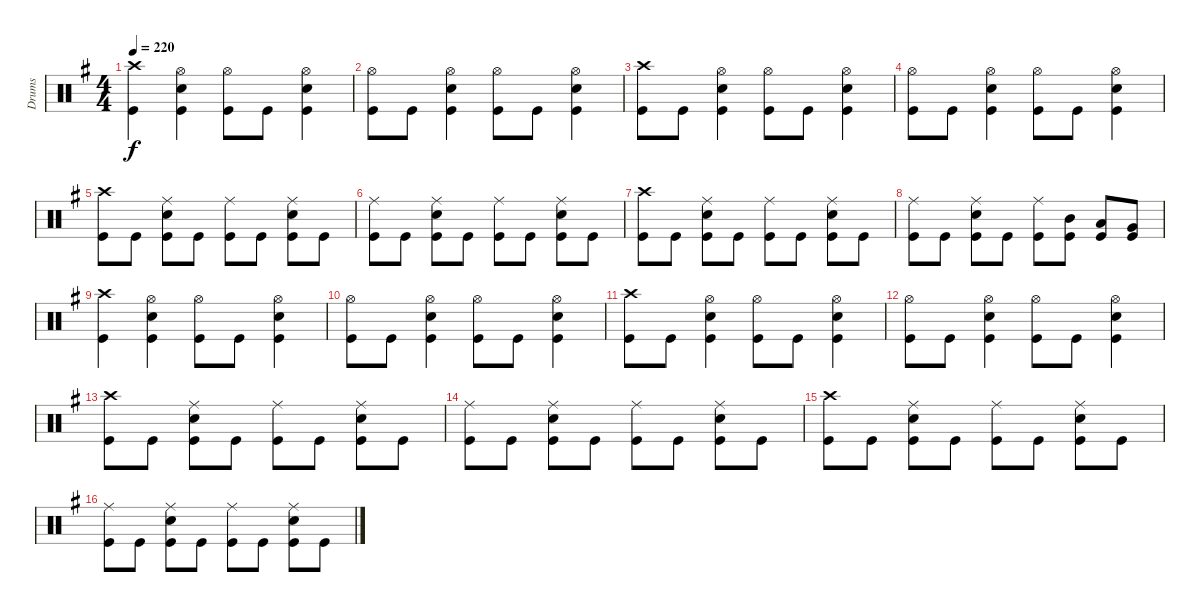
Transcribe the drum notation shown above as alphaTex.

\track ("Drums" "Drums") {instrument percussion}
\staff {score}
\articulation defaults
\ts (4 4)
\tempo 220
\clef neutral
\ks eminor
("Kick (hit)" "Crash high (hit)").4{dy f} ("Snare (hit) 2" "Kick (hit)" "Hi-Hat (open)").4 ("Kick (hit)" "Hi-Hat (open)").8 "Kick (hit)".8 ("Kick (hit)" "Snare (hit) 2" "Hi-Hat (open)").4 |
("Kick (hit)" "Hi-Hat (open)").8 "Kick (hit)".8 ("Kick (hit)" "Snare (hit) 2" "Hi-Hat (open)").4 ("Kick (hit)" "Hi-Hat (open)").8 "Kick (hit)".8 ("Kick (hit)" "Snare (hit) 2" "Hi-Hat (open)").4 |
("Kick (hit)" "Crash high (hit)").8 "Kick (hit)".8 ("Snare (hit) 2" "Kick (hit)" "Hi-Hat (open)").4 ("Kick (hit)" "Hi-Hat (open)").8 "Kick (hit)".8 ("Kick (hit)" "Snare (hit) 2" "Hi-Hat (open)").4 |
("Kick (hit)" "Hi-Hat (open)").8 "Kick (hit)".8 ("Kick (hit)" "Snare (hit) 2" "Hi-Hat (open)").4 ("Kick (hit)" "Hi-Hat (open)").8 "Kick (hit)".8 ("Kick (hit)" "Snare (hit) 2" "Hi-Hat (open)").4 |
("Kick (hit)" "Crash high (hit)").8 "Kick (hit)".8 ("Snare (hit) 2" "Kick (hit)" "Ride (middle)").8 "Kick (hit)".8 ("Kick (hit)" "Ride (middle)").8 "Kick (hit)".8 ("Kick (hit)" "Snare (hit) 2" "Ride (middle)").8 "Kick (hit)".8 |
("Kick (hit)" "Ride (middle)").8 "Kick (hit)".8 ("Kick (hit)" "Snare (hit) 2" "Ride (middle)").8 "Kick (hit)".8 ("Kick (hit)" "Ride (middle)").8 "Kick (hit)".8 ("Kick (hit)" "Snare (hit) 2" "Ride (middle)").8 "Kick (hit)".8 |
("Kick (hit)" "Crash high (hit)").8 "Kick (hit)".8 ("Snare (hit) 2" "Kick (hit)" "Ride (middle)").8 "Kick (hit)".8 ("Kick (hit)" "Ride (middle)").8 "Kick (hit)".8 ("Kick (hit)" "Snare (hit) 2" "Ride (middle)").8 "Kick (hit)".8 |
("Kick (hit)" "Ride (middle)").8 "Kick (hit)".8 ("Kick (hit)" "Snare (hit) 2" "Ride (middle)").8 "Kick (hit)".8 ("Kick (hit)" "Ride (middle)").8 ("Kick (hit)" "Mid Tom (hit)").8 ("Kick (hit)" "Low Tom (hit)").8 ("Kick (hit)" "Very Low Tom (hit)").8 |
("Kick (hit)" "Crash high (hit)").4 ("Snare (hit) 2" "Kick (hit)" "Hi-Hat (open)").4 ("Kick (hit)" "Hi-Hat (open)").8 "Kick (hit)".8 ("Kick (hit)" "Snare (hit) 2" "Hi-Hat (open)").4 |
("Kick (hit)" "Hi-Hat (open)").8 "Kick (hit)".8 ("Kick (hit)" "Snare (hit) 2" "Hi-Hat (open)").4 ("Kick (hit)" "Hi-Hat (open)").8 "Kick (hit)".8 ("Kick (hit)" "Snare (hit) 2" "Hi-Hat (open)").4 |
("Kick (hit)" "Crash high (hit)").8 "Kick (hit)".8 ("Snare (hit) 2" "Kick (hit)" "Hi-Hat (open)").4 ("Kick (hit)" "Hi-Hat (open)").8 "Kick (hit)".8 ("Kick (hit)" "Snare (hit) 2" "Hi-Hat (open)").4 |
("Kick (hit)" "Hi-Hat (open)").8 "Kick (hit)".8 ("Kick (hit)" "Snare (hit) 2" "Hi-Hat (open)").4 ("Kick (hit)" "Hi-Hat (open)").8 "Kick (hit)".8 ("Kick (hit)" "Snare (hit) 2" "Hi-Hat (open)").4 |
("Kick (hit)" "Crash high (hit)").8 "Kick (hit)".8 ("Snare (hit) 2" "Kick (hit)" "Ride (middle)").8 "Kick (hit)".8 ("Kick (hit)" "Ride (middle)").8 "Kick (hit)".8 ("Kick (hit)" "Snare (hit) 2" "Ride (middle)").8 "Kick (hit)".8 |
("Kick (hit)" "Ride (middle)").8 "Kick (hit)".8 ("Kick (hit)" "Snare (hit) 2" "Ride (middle)").8 "Kick (hit)".8 ("Kick (hit)" "Ride (middle)").8 "Kick (hit)".8 ("Kick (hit)" "Snare (hit) 2" "Ride (middle)").8 "Kick (hit)".8 |
("Kick (hit)" "Crash high (hit)").8 "Kick (hit)".8 ("Snare (hit) 2" "Kick (hit)" "Ride (middle)").8 "Kick (hit)".8 ("Kick (hit)" "Ride (middle)").8 "Kick (hit)".8 ("Kick (hit)" "Snare (hit) 2" "Ride (middle)").8 "Kick (hit)".8 |
("Kick (hit)" "Ride (middle)").8 "Kick (hit)".8 ("Kick (hit)" "Snare (hit) 2" "Ride (middle)").8 "Kick (hit)".8 ("Kick (hit)" "Ride (middle)").8 "Kick (hit)".8 ("Kick (hit)" "Snare (hit) 2" "Ride (middle)").8 "Kick (hit)".8
